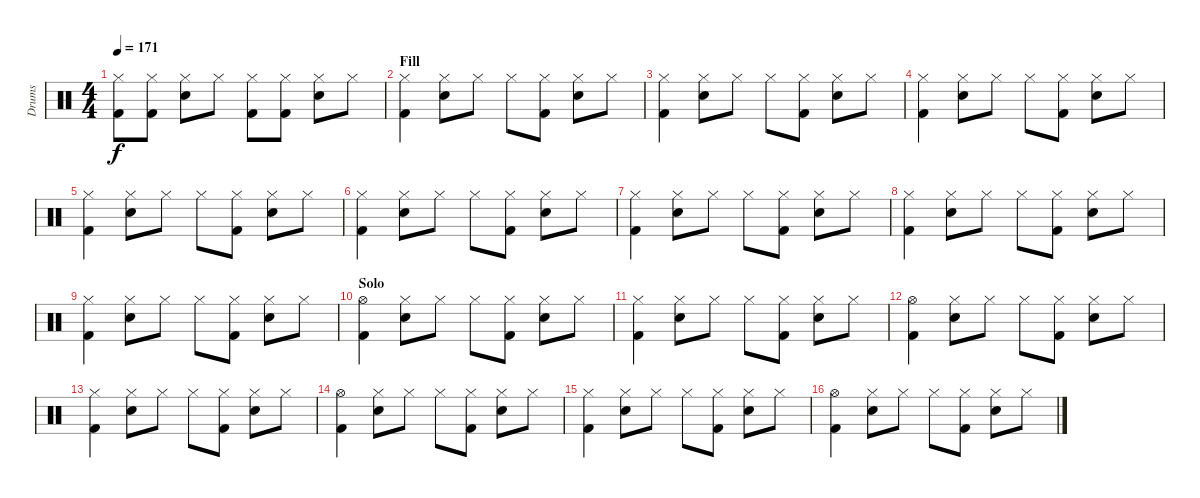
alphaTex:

\track ("Drums" "Drums") {instrument percussion}
\staff {score}
\articulation defaults
\ts (4 4)
\tempo 171
\clef neutral
\ks c
("Hi-Hat (closed)" "Kick (hit) 2").8{dy f} ("Hi-Hat (closed)" "Kick (hit) 2").8 ("Hi-Hat (closed)" "Electric Snare (hit)").8 "Hi-Hat (closed)".8 ("Hi-Hat (closed)" "Kick (hit) 2").8 ("Hi-Hat (closed)" "Kick (hit) 2").8 ("Hi-Hat (closed)" "Electric Snare (hit)").8 "Hi-Hat (closed)".8 |
\section ("" "Fill")
("Hi-Hat (closed)" "Kick (hit) 2").4 ("Hi-Hat (closed)" "Electric Snare (hit)").8 "Hi-Hat (closed)".8 "Hi-Hat (closed)".8 ("Hi-Hat (closed)" "Kick (hit) 2").8 ("Hi-Hat (closed)" "Electric Snare (hit)").8 "Hi-Hat (closed)".8 |
("Hi-Hat (closed)" "Kick (hit) 2").4 ("Hi-Hat (closed)" "Electric Snare (hit)").8 "Hi-Hat (closed)".8 "Hi-Hat (closed)".8 ("Hi-Hat (closed)" "Kick (hit) 2").8 ("Hi-Hat (closed)" "Electric Snare (hit)").8 "Hi-Hat (closed)".8 |
("Hi-Hat (closed)" "Kick (hit) 2").4 ("Hi-Hat (closed)" "Electric Snare (hit)").8 "Hi-Hat (closed)".8 "Hi-Hat (closed)".8 ("Hi-Hat (closed)" "Kick (hit) 2").8 ("Hi-Hat (closed)" "Electric Snare (hit)").8 "Hi-Hat (closed)".8 |
("Hi-Hat (closed)" "Kick (hit) 2").4 ("Hi-Hat (closed)" "Electric Snare (hit)").8 "Hi-Hat (closed)".8 "Hi-Hat (closed)".8 ("Hi-Hat (closed)" "Kick (hit) 2").8 ("Hi-Hat (closed)" "Electric Snare (hit)").8 "Hi-Hat (closed)".8 |
("Hi-Hat (closed)" "Kick (hit) 2").4 ("Hi-Hat (closed)" "Electric Snare (hit)").8 "Hi-Hat (closed)".8 "Hi-Hat (closed)".8 ("Hi-Hat (closed)" "Kick (hit) 2").8 ("Hi-Hat (closed)" "Electric Snare (hit)").8 "Hi-Hat (closed)".8 |
("Hi-Hat (closed)" "Kick (hit) 2").4 ("Hi-Hat (closed)" "Electric Snare (hit)").8 "Hi-Hat (closed)".8 "Hi-Hat (closed)".8 ("Hi-Hat (closed)" "Kick (hit) 2").8 ("Hi-Hat (closed)" "Electric Snare (hit)").8 "Hi-Hat (closed)".8 |
("Hi-Hat (closed)" "Kick (hit) 2").4 ("Hi-Hat (closed)" "Electric Snare (hit)").8 "Hi-Hat (closed)".8 "Hi-Hat (closed)".8 ("Hi-Hat (closed)" "Kick (hit) 2").8 ("Hi-Hat (closed)" "Electric Snare (hit)").8 "Hi-Hat (closed)".8 |
("Hi-Hat (closed)" "Kick (hit) 2").4 ("Hi-Hat (closed)" "Electric Snare (hit)").8 "Hi-Hat (closed)".8 "Hi-Hat (closed)".8 ("Hi-Hat (closed)" "Kick (hit) 2").8 ("Hi-Hat (closed)" "Electric Snare (hit)").8 "Hi-Hat (closed)".8 |
\section ("" "Solo")
("Hi-Hat (open)" "Kick (hit) 2").4 ("Hi-Hat (closed)" "Electric Snare (hit)").8 "Hi-Hat (closed)".8 "Hi-Hat (closed)".8 ("Hi-Hat (closed)" "Kick (hit) 2").8 ("Hi-Hat (closed)" "Electric Snare (hit)").8 "Hi-Hat (closed)".8 |
("Hi-Hat (closed)" "Kick (hit) 2").4 ("Hi-Hat (closed)" "Electric Snare (hit)").8 "Hi-Hat (closed)".8 "Hi-Hat (closed)".8 ("Hi-Hat (closed)" "Kick (hit) 2").8 ("Hi-Hat (closed)" "Electric Snare (hit)").8 "Hi-Hat (closed)".8 |
("Hi-Hat (open)" "Kick (hit) 2").4 ("Hi-Hat (closed)" "Electric Snare (hit)").8 "Hi-Hat (closed)".8 "Hi-Hat (closed)".8 ("Hi-Hat (closed)" "Kick (hit) 2").8 ("Hi-Hat (closed)" "Electric Snare (hit)").8 "Hi-Hat (closed)".8 |
("Hi-Hat (closed)" "Kick (hit) 2").4 ("Hi-Hat (closed)" "Electric Snare (hit)").8 "Hi-Hat (closed)".8 "Hi-Hat (closed)".8 ("Hi-Hat (closed)" "Kick (hit) 2").8 ("Hi-Hat (closed)" "Electric Snare (hit)").8 "Hi-Hat (closed)".8 |
("Hi-Hat (open)" "Kick (hit) 2").4 ("Hi-Hat (closed)" "Electric Snare (hit)").8 "Hi-Hat (closed)".8 "Hi-Hat (closed)".8 ("Hi-Hat (closed)" "Kick (hit) 2").8 ("Hi-Hat (closed)" "Electric Snare (hit)").8 "Hi-Hat (closed)".8 |
("Hi-Hat (closed)" "Kick (hit) 2").4 ("Hi-Hat (closed)" "Electric Snare (hit)").8 "Hi-Hat (closed)".8 "Hi-Hat (closed)".8 ("Hi-Hat (closed)" "Kick (hit) 2").8 ("Hi-Hat (closed)" "Electric Snare (hit)").8 "Hi-Hat (closed)".8 |
("Hi-Hat (open)" "Kick (hit) 2").4 ("Hi-Hat (closed)" "Electric Snare (hit)").8 "Hi-Hat (closed)".8 "Hi-Hat (closed)".8 ("Hi-Hat (closed)" "Kick (hit) 2").8 ("Hi-Hat (closed)" "Electric Snare (hit)").8 "Hi-Hat (closed)".8
